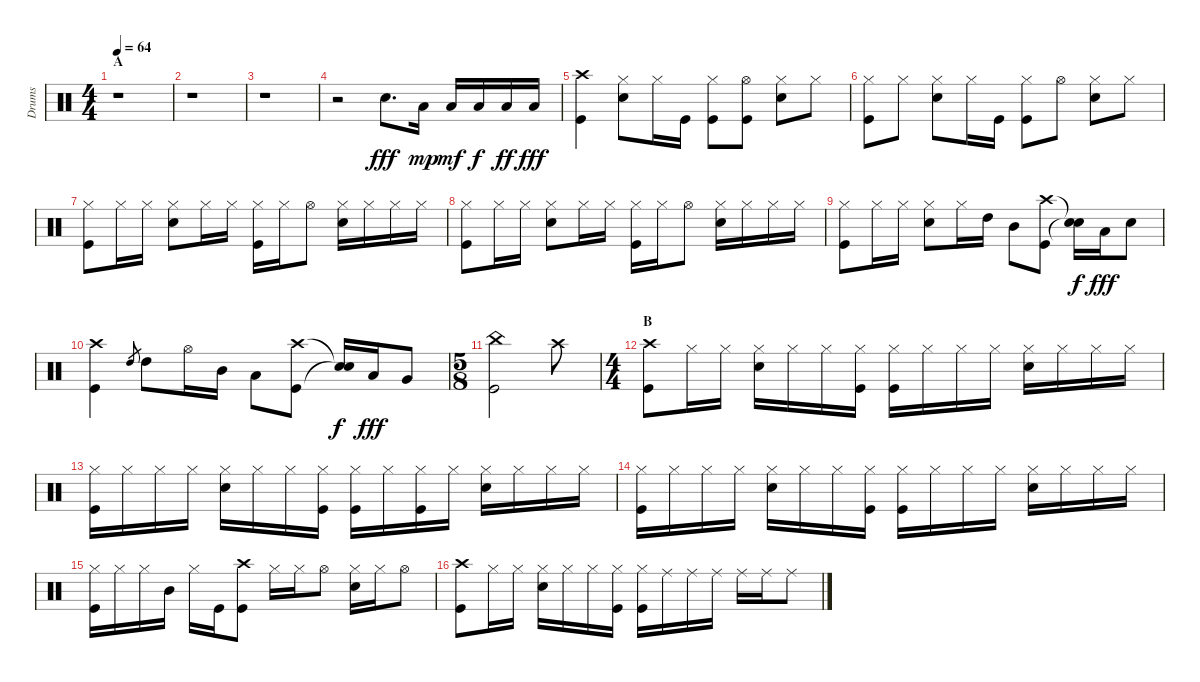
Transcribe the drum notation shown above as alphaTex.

\track ("Drums" "Drums") {instrument percussion}
\staff {score}
\articulation defaults
\ts (4 4)
\section ("" "A")
\tempo 64
\clef neutral
\ks c
r.1{dy fff} |
r.1 |
r.1 |
r.2 "Snare (hit) 2".8{d} "Low Tom (hit)".16{dy mp} "Low Tom (hit)".16{dy mf} "Low Tom (hit)".16{dy f} "Low Tom (hit)".16{dy ff} "Low Tom (hit)".16{dy fff} |
("Crash high (hit)" "Kick (hit)").4 ("Hi-Hat (closed)" "Snare (hit) 2").8 "Hi-Hat (closed)".16 "Kick (hit)".16 ("Hi-Hat (closed)" "Kick (hit)").8 ("Hi-Hat (open)" "Kick (hit)").8 ("Hi-Hat (closed)" "Snare (hit) 2").8 "Hi-Hat (closed)".8 |
("Hi-Hat (closed)" "Kick (hit)").8 "Hi-Hat (closed)".8 ("Hi-Hat (closed)" "Snare (hit) 2").8 "Hi-Hat (closed)".16 "Kick (hit)".16 ("Hi-Hat (closed)" "Kick (hit)").8 "Hi-Hat (open)".8 ("Hi-Hat (closed)" "Snare (hit) 2").8 "Hi-Hat (closed)".8 |
("Hi-Hat (closed)" "Kick (hit)").8 "Hi-Hat (closed)".16 "Hi-Hat (closed)".16 ("Hi-Hat (closed)" "Snare (hit) 2").8 "Hi-Hat (closed)".16 "Hi-Hat (closed)".16 ("Hi-Hat (closed)" "Kick (hit)").16 "Hi-Hat (closed)".16 "Hi-Hat (open)".8 ("Hi-Hat (closed)" "Snare (hit) 2").16 "Hi-Hat (closed)".16 "Hi-Hat (closed)".16 "Hi-Hat (closed)".16 |
("Hi-Hat (closed)" "Kick (hit)").8 "Hi-Hat (closed)".16 "Hi-Hat (closed)".16 ("Hi-Hat (closed)" "Snare (hit) 2").8 "Hi-Hat (closed)".16 "Hi-Hat (closed)".16 ("Hi-Hat (closed)" "Kick (hit)").16 "Hi-Hat (closed)".16 "Hi-Hat (open)".8 ("Hi-Hat (closed)" "Snare (hit) 2").16 "Hi-Hat (closed)".16 "Hi-Hat (closed)".16 "Hi-Hat (closed)".16 |
("Hi-Hat (closed)" "Kick (hit)").8 "Hi-Hat (closed)".16 "Hi-Hat (closed)".16 ("Hi-Hat (closed)" "Snare (hit) 2").8 "Hi-Hat (closed)".16 "High Tom (hit)".16 "Mid Tom (hit)".8 ("Crash high (hit)" "Kick (hit)").8 ("Snare (hit)"{t} "Snare (hit)"{t}).16{dy f} "Low Tom (hit)".16{dy fff} "Snare (hit) 2".8 |
("Crash high (hit)" "Kick (hit)").4 "High Tom (hit)".8{gr} "High Tom (hit)".8 "Hi-Hat (open)".16 "Mid Tom (hit)".16 "Low Tom (hit)".8 ("Crash high (hit)" "Kick (hit)").8 ("Snare (hit)"{t} "Snare (hit)"{t}).16{dy f} "Low Tom (hit)".16{dy fff} "Very Low Tom (hit)".8 |
\ts (5 8)
("China (hit)" "Kick (hit)").2 "Crash high (hit)".8 |
\ts (4 4)
\section ("" "B")
("Crash high (hit)" "Kick (hit)").8 "Hi-Hat (closed)".16 "Hi-Hat (closed)".16 ("Hi-Hat (closed)" "Snare (hit) 2").16 "Hi-Hat (closed)".16 "Hi-Hat (closed)".16 ("Hi-Hat (closed)" "Kick (hit)").16 ("Hi-Hat (closed)" "Kick (hit)").16 "Hi-Hat (closed)".16 "Hi-Hat (closed)".16 "Hi-Hat (closed)".16 ("Hi-Hat (closed)" "Snare (hit) 2").16 "Hi-Hat (closed)".16 "Hi-Hat (closed)".16 "Hi-Hat (closed)".16 |
("Hi-Hat (closed)" "Kick (hit)").16 "Hi-Hat (closed)".16 "Hi-Hat (closed)".16 "Hi-Hat (closed)".16 ("Hi-Hat (closed)" "Snare (hit) 2").16 "Hi-Hat (closed)".16 "Hi-Hat (closed)".16 ("Hi-Hat (closed)" "Kick (hit)").16 ("Hi-Hat (closed)" "Kick (hit)").16 "Hi-Hat (closed)".16 ("Hi-Hat (closed)" "Kick (hit)").16 "Hi-Hat (closed)".16 ("Hi-Hat (closed)" "Snare (hit) 2").16 "Hi-Hat (closed)".16 "Hi-Hat (closed)".16 "Hi-Hat (closed)".16 |
("Hi-Hat (closed)" "Kick (hit)").16 "Hi-Hat (closed)".16 "Hi-Hat (closed)".16 "Hi-Hat (closed)".16 ("Hi-Hat (closed)" "Snare (hit) 2").16 "Hi-Hat (closed)".16 "Hi-Hat (closed)".16 ("Hi-Hat (closed)" "Kick (hit)").16 ("Hi-Hat (closed)" "Kick (hit)").16 "Hi-Hat (closed)".16 "Hi-Hat (closed)".16 "Hi-Hat (closed)".16 ("Hi-Hat (closed)" "Snare (hit) 2").16 "Hi-Hat (closed)".16 "Hi-Hat (closed)".16 "Hi-Hat (closed)".16 |
("Hi-Hat (closed)" "Kick (hit)").16 "Hi-Hat (closed)".16 "Hi-Hat (closed)".16 "Mid Tom (hit)".16 "Hi-Hat (closed)".16 "Kick (hit)".16 ("Crash high (hit)" "Kick (hit)").8 "Hi-Hat (closed)".16 "Hi-Hat (closed)".16 "Hi-Hat (open)".8 ("Hi-Hat (closed)" "Snare (hit) 2").16 "Hi-Hat (closed)".16 "Hi-Hat (open)".8 |
("Crash high (hit)" "Kick (hit)").8 "Hi-Hat (closed)".16 "Hi-Hat (closed)".16 ("Hi-Hat (closed)" "Snare (hit) 2").16 "Hi-Hat (closed)".16 "Hi-Hat (closed)".16 ("Hi-Hat (closed)" "Kick (hit)").16 ("Hi-Hat (closed)" "Kick (hit)").16 "Ride (middle)".16 "Ride (middle)".16 "Ride (middle)".16 "Ride (middle)".16 "Ride (middle)".16 "Ride (middle)".8
